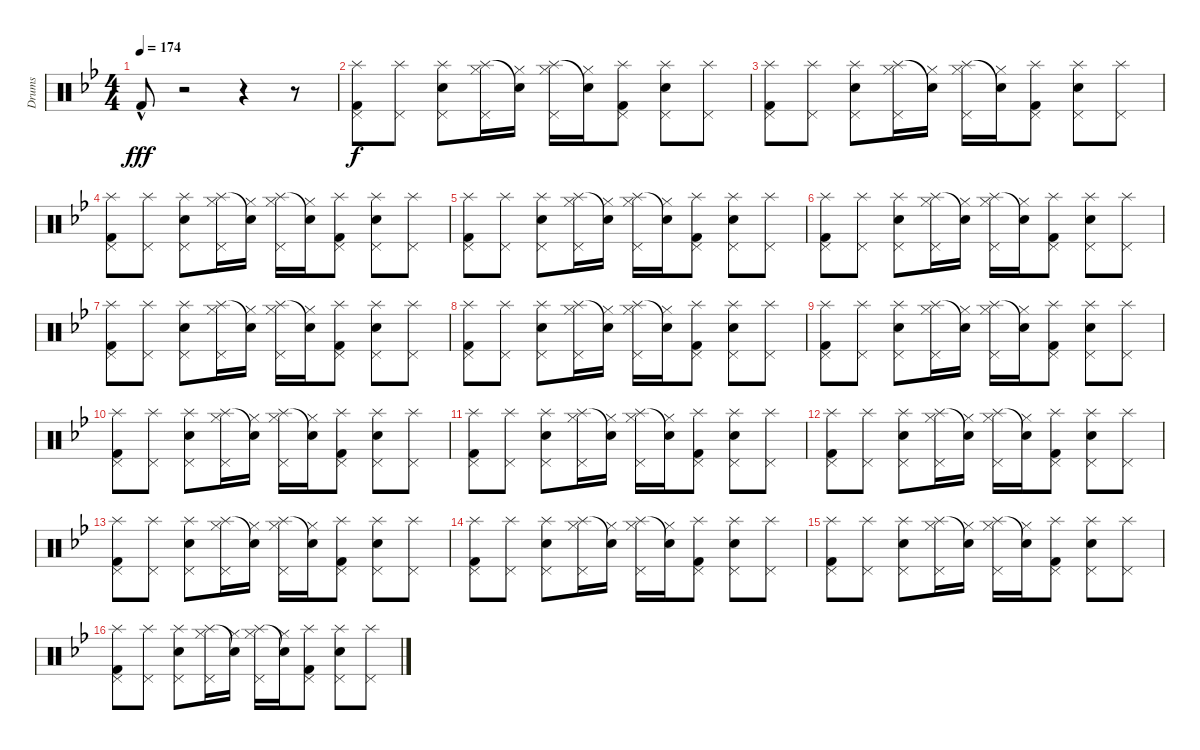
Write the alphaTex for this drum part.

\track ("Drums" "Drums") {instrument percussion}
\staff {score}
\articulation defaults
\ts (4 4)
\tempo 174
\clef neutral
\ks gminor "Kick (hit) 2"{hac}.8{dy fff}
r.2 r.4 r.8 |
("Splash (hit)" "Pedal Hi-Hat (hit)" "Kick (hit) 2").8{dy f} ("Splash (hit)" "Pedal Hi-Hat (hit)").8 ("Splash (hit)" "Pedal Hi-Hat (hit)" "Snare (hit) 2").8 ("Splash (hit)" "Pedal Hi-Hat (hit)" "Hi-Hat (closed)").16 ("Snare (hit)"{t} "Hi-Hat (closed)").16 ("Splash (hit)" "Pedal Hi-Hat (hit)" "Hi-Hat (closed)").16 ("Snare (hit)"{t} "Hi-Hat (closed)").16 ("Splash (hit)" "Pedal Hi-Hat (hit)" "Kick (hit) 2").8 ("Splash (hit)" "Pedal Hi-Hat (hit)" "Snare (hit) 2").8 ("Splash (hit)" "Pedal Hi-Hat (hit)").8 |
("Splash (hit)" "Pedal Hi-Hat (hit)" "Kick (hit) 2").8 ("Splash (hit)" "Pedal Hi-Hat (hit)").8 ("Splash (hit)" "Pedal Hi-Hat (hit)" "Snare (hit) 2").8 ("Splash (hit)" "Pedal Hi-Hat (hit)" "Hi-Hat (closed)").16 ("Snare (hit)"{t} "Hi-Hat (closed)").16 ("Splash (hit)" "Pedal Hi-Hat (hit)" "Hi-Hat (closed)").16 ("Snare (hit)"{t} "Hi-Hat (closed)").16 ("Splash (hit)" "Pedal Hi-Hat (hit)" "Kick (hit) 2").8 ("Splash (hit)" "Pedal Hi-Hat (hit)" "Snare (hit) 2").8 ("Splash (hit)" "Pedal Hi-Hat (hit)").8 |
("Splash (hit)" "Pedal Hi-Hat (hit)" "Kick (hit) 2").8 ("Splash (hit)" "Pedal Hi-Hat (hit)").8 ("Splash (hit)" "Pedal Hi-Hat (hit)" "Snare (hit) 2").8 ("Splash (hit)" "Pedal Hi-Hat (hit)" "Hi-Hat (closed)").16 ("Snare (hit)"{t} "Hi-Hat (closed)").16 ("Splash (hit)" "Pedal Hi-Hat (hit)" "Hi-Hat (closed)").16 ("Snare (hit)"{t} "Hi-Hat (closed)").16 ("Splash (hit)" "Pedal Hi-Hat (hit)" "Kick (hit) 2").8 ("Splash (hit)" "Pedal Hi-Hat (hit)" "Snare (hit) 2").8 ("Splash (hit)" "Pedal Hi-Hat (hit)").8 |
("Splash (hit)" "Pedal Hi-Hat (hit)" "Kick (hit) 2").8 ("Splash (hit)" "Pedal Hi-Hat (hit)").8 ("Splash (hit)" "Pedal Hi-Hat (hit)" "Snare (hit) 2").8 ("Splash (hit)" "Pedal Hi-Hat (hit)" "Hi-Hat (closed)").16 ("Snare (hit)"{t} "Hi-Hat (closed)").16 ("Splash (hit)" "Pedal Hi-Hat (hit)" "Hi-Hat (closed)").16 ("Snare (hit)"{t} "Hi-Hat (closed)").16 ("Splash (hit)" "Pedal Hi-Hat (hit)" "Kick (hit) 2").8 ("Splash (hit)" "Pedal Hi-Hat (hit)" "Snare (hit) 2").8 ("Splash (hit)" "Pedal Hi-Hat (hit)").8 |
("Splash (hit)" "Pedal Hi-Hat (hit)" "Kick (hit) 2").8 ("Splash (hit)" "Pedal Hi-Hat (hit)").8 ("Splash (hit)" "Pedal Hi-Hat (hit)" "Snare (hit) 2").8 ("Splash (hit)" "Pedal Hi-Hat (hit)" "Hi-Hat (closed)").16 ("Snare (hit)"{t} "Hi-Hat (closed)").16 ("Splash (hit)" "Pedal Hi-Hat (hit)" "Hi-Hat (closed)").16 ("Snare (hit)"{t} "Hi-Hat (closed)").16 ("Splash (hit)" "Pedal Hi-Hat (hit)" "Kick (hit) 2").8 ("Splash (hit)" "Pedal Hi-Hat (hit)" "Snare (hit) 2").8 ("Splash (hit)" "Pedal Hi-Hat (hit)").8 |
("Splash (hit)" "Pedal Hi-Hat (hit)" "Kick (hit) 2").8 ("Splash (hit)" "Pedal Hi-Hat (hit)").8 ("Splash (hit)" "Pedal Hi-Hat (hit)" "Snare (hit) 2").8 ("Splash (hit)" "Pedal Hi-Hat (hit)" "Hi-Hat (closed)").16 ("Snare (hit)"{t} "Hi-Hat (closed)").16 ("Splash (hit)" "Pedal Hi-Hat (hit)" "Hi-Hat (closed)").16 ("Snare (hit)"{t} "Hi-Hat (closed)").16 ("Splash (hit)" "Pedal Hi-Hat (hit)" "Kick (hit) 2").8 ("Splash (hit)" "Pedal Hi-Hat (hit)" "Snare (hit) 2").8 ("Splash (hit)" "Pedal Hi-Hat (hit)").8 |
("Splash (hit)" "Pedal Hi-Hat (hit)" "Kick (hit) 2").8 ("Splash (hit)" "Pedal Hi-Hat (hit)").8 ("Splash (hit)" "Pedal Hi-Hat (hit)" "Snare (hit) 2").8 ("Splash (hit)" "Pedal Hi-Hat (hit)" "Hi-Hat (closed)").16 ("Snare (hit)"{t} "Hi-Hat (closed)").16 ("Splash (hit)" "Pedal Hi-Hat (hit)" "Hi-Hat (closed)").16 ("Snare (hit)"{t} "Hi-Hat (closed)").16 ("Splash (hit)" "Pedal Hi-Hat (hit)" "Kick (hit) 2").8 ("Splash (hit)" "Pedal Hi-Hat (hit)" "Snare (hit) 2").8 ("Splash (hit)" "Pedal Hi-Hat (hit)").8 |
("Splash (hit)" "Pedal Hi-Hat (hit)" "Kick (hit) 2").8 ("Splash (hit)" "Pedal Hi-Hat (hit)").8 ("Splash (hit)" "Pedal Hi-Hat (hit)" "Snare (hit) 2").8 ("Splash (hit)" "Pedal Hi-Hat (hit)" "Hi-Hat (closed)").16 ("Snare (hit)"{t} "Hi-Hat (closed)").16 ("Splash (hit)" "Pedal Hi-Hat (hit)" "Hi-Hat (closed)").16 ("Snare (hit)"{t} "Hi-Hat (closed)").16 ("Splash (hit)" "Pedal Hi-Hat (hit)" "Kick (hit) 2").8 ("Splash (hit)" "Pedal Hi-Hat (hit)" "Snare (hit) 2").8 ("Splash (hit)" "Pedal Hi-Hat (hit)").8 |
("Splash (hit)" "Pedal Hi-Hat (hit)" "Kick (hit) 2").8 ("Splash (hit)" "Pedal Hi-Hat (hit)").8 ("Splash (hit)" "Pedal Hi-Hat (hit)" "Snare (hit) 2").8 ("Splash (hit)" "Pedal Hi-Hat (hit)" "Hi-Hat (closed)").16 ("Snare (hit)"{t} "Hi-Hat (closed)").16 ("Splash (hit)" "Pedal Hi-Hat (hit)" "Hi-Hat (closed)").16 ("Snare (hit)"{t} "Hi-Hat (closed)").16 ("Splash (hit)" "Pedal Hi-Hat (hit)" "Kick (hit) 2").8 ("Splash (hit)" "Pedal Hi-Hat (hit)" "Snare (hit) 2").8 ("Splash (hit)" "Pedal Hi-Hat (hit)").8 |
("Splash (hit)" "Pedal Hi-Hat (hit)" "Kick (hit) 2").8 ("Splash (hit)" "Pedal Hi-Hat (hit)").8 ("Splash (hit)" "Pedal Hi-Hat (hit)" "Snare (hit) 2").8 ("Splash (hit)" "Pedal Hi-Hat (hit)" "Hi-Hat (closed)").16 ("Snare (hit)"{t} "Hi-Hat (closed)").16 ("Splash (hit)" "Pedal Hi-Hat (hit)" "Hi-Hat (closed)").16 ("Snare (hit)"{t} "Hi-Hat (closed)").16 ("Splash (hit)" "Pedal Hi-Hat (hit)" "Kick (hit) 2").8 ("Splash (hit)" "Pedal Hi-Hat (hit)" "Snare (hit) 2").8 ("Splash (hit)" "Pedal Hi-Hat (hit)").8 |
("Splash (hit)" "Pedal Hi-Hat (hit)" "Kick (hit) 2").8 ("Splash (hit)" "Pedal Hi-Hat (hit)").8 ("Splash (hit)" "Pedal Hi-Hat (hit)" "Snare (hit) 2").8 ("Splash (hit)" "Pedal Hi-Hat (hit)" "Hi-Hat (closed)").16 ("Snare (hit)"{t} "Hi-Hat (closed)").16 ("Splash (hit)" "Pedal Hi-Hat (hit)" "Hi-Hat (closed)").16 ("Snare (hit)"{t} "Hi-Hat (closed)").16 ("Splash (hit)" "Pedal Hi-Hat (hit)" "Kick (hit) 2").8 ("Splash (hit)" "Pedal Hi-Hat (hit)" "Snare (hit) 2").8 ("Splash (hit)" "Pedal Hi-Hat (hit)").8 |
("Splash (hit)" "Pedal Hi-Hat (hit)" "Kick (hit) 2").8 ("Splash (hit)" "Pedal Hi-Hat (hit)").8 ("Splash (hit)" "Pedal Hi-Hat (hit)" "Snare (hit) 2").8 ("Splash (hit)" "Pedal Hi-Hat (hit)" "Hi-Hat (closed)").16 ("Snare (hit)"{t} "Hi-Hat (closed)").16 ("Splash (hit)" "Pedal Hi-Hat (hit)" "Hi-Hat (closed)").16 ("Snare (hit)"{t} "Hi-Hat (closed)").16 ("Splash (hit)" "Pedal Hi-Hat (hit)" "Kick (hit) 2").8 ("Splash (hit)" "Pedal Hi-Hat (hit)" "Snare (hit) 2").8 ("Splash (hit)" "Pedal Hi-Hat (hit)").8 |
("Splash (hit)" "Pedal Hi-Hat (hit)" "Kick (hit) 2").8 ("Splash (hit)" "Pedal Hi-Hat (hit)").8 ("Splash (hit)" "Pedal Hi-Hat (hit)" "Snare (hit) 2").8 ("Splash (hit)" "Pedal Hi-Hat (hit)" "Hi-Hat (closed)").16 ("Snare (hit)"{t} "Hi-Hat (closed)").16 ("Splash (hit)" "Pedal Hi-Hat (hit)" "Hi-Hat (closed)").16 ("Snare (hit)"{t} "Hi-Hat (closed)").16 ("Splash (hit)" "Pedal Hi-Hat (hit)" "Kick (hit) 2").8 ("Splash (hit)" "Pedal Hi-Hat (hit)" "Snare (hit) 2").8 ("Splash (hit)" "Pedal Hi-Hat (hit)").8 |
("Splash (hit)" "Pedal Hi-Hat (hit)" "Kick (hit) 2").8 ("Splash (hit)" "Pedal Hi-Hat (hit)").8 ("Splash (hit)" "Pedal Hi-Hat (hit)" "Snare (hit) 2").8 ("Splash (hit)" "Pedal Hi-Hat (hit)" "Hi-Hat (closed)").16 ("Snare (hit)"{t} "Hi-Hat (closed)").16 ("Splash (hit)" "Pedal Hi-Hat (hit)" "Hi-Hat (closed)").16 ("Snare (hit)"{t} "Hi-Hat (closed)").16 ("Splash (hit)" "Pedal Hi-Hat (hit)" "Kick (hit) 2").8 ("Splash (hit)" "Pedal Hi-Hat (hit)" "Snare (hit) 2").8 ("Splash (hit)" "Pedal Hi-Hat (hit)").8 |
("Splash (hit)" "Pedal Hi-Hat (hit)" "Kick (hit) 2").8 ("Splash (hit)" "Pedal Hi-Hat (hit)").8 ("Splash (hit)" "Pedal Hi-Hat (hit)" "Snare (hit) 2").8 ("Splash (hit)" "Pedal Hi-Hat (hit)" "Hi-Hat (closed)").16 ("Snare (hit)"{t} "Hi-Hat (closed)").16 ("Splash (hit)" "Pedal Hi-Hat (hit)" "Hi-Hat (closed)").16 ("Snare (hit)"{t} "Hi-Hat (closed)").16 ("Splash (hit)" "Pedal Hi-Hat (hit)" "Kick (hit) 2").8 ("Splash (hit)" "Pedal Hi-Hat (hit)" "Snare (hit) 2").8 ("Splash (hit)" "Pedal Hi-Hat (hit)").8
